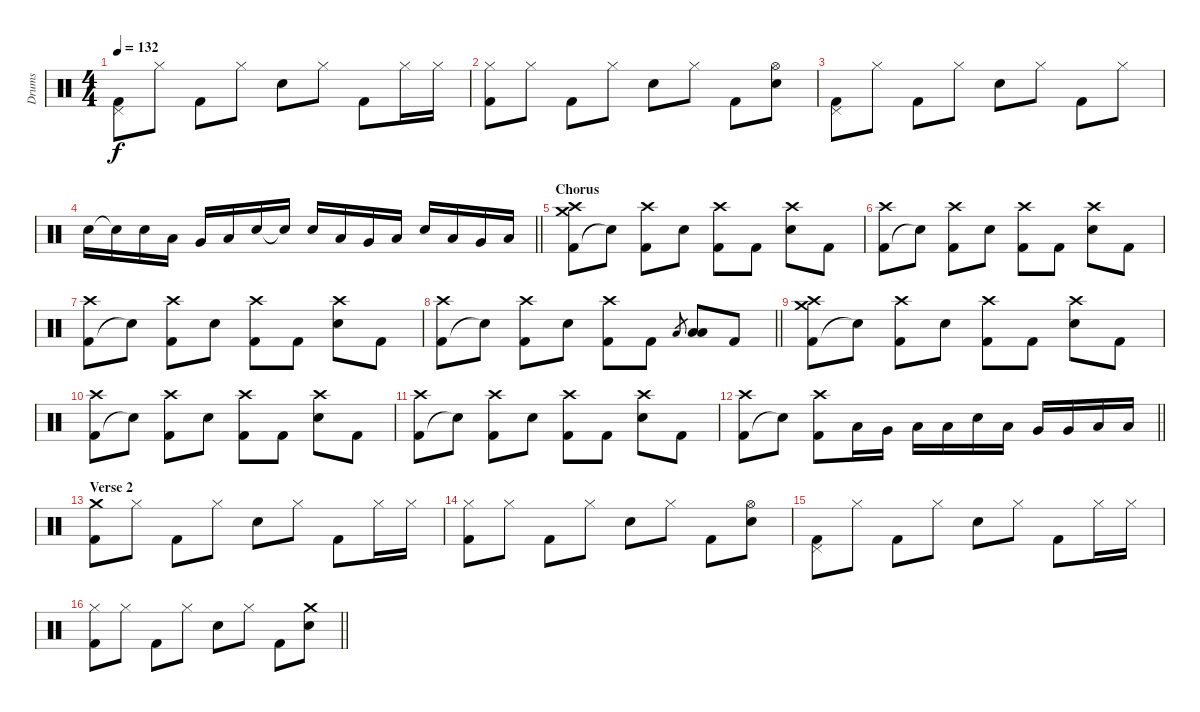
\track ("Drums" "Drums") {instrument percussion}
\staff {score}
\articulation defaults
\ts (4 4)
\tempo 132
\clef neutral
\ks c
("Kick (hit) 2" "Pedal Hi-Hat (hit)").8{dy f} "Hi-Hat (closed)".8 "Kick (hit) 2".8 "Hi-Hat (closed)".8 "Electric Snare (hit)".8 "Hi-Hat (closed)".8 "Kick (hit) 2".8 "Hi-Hat (closed)".16 "Hi-Hat (closed)".16 |
("Kick (hit) 2" "Hi-Hat (closed)").8 "Hi-Hat (closed)".8 "Kick (hit) 2".8 "Hi-Hat (closed)".8 "Electric Snare (hit)".8 "Hi-Hat (closed)".8 "Kick (hit) 2".8 ("Electric Snare (hit)" "Hi-Hat (open)").8 |
("Kick (hit) 2" "Pedal Hi-Hat (hit)").8 "Hi-Hat (closed)".8 "Kick (hit) 2".8 "Hi-Hat (closed)".8 "Electric Snare (hit)".8 "Hi-Hat (closed)".8 "Kick (hit) 2".8 "Hi-Hat (closed)".8 |
\barLineRight lightlight "Electric Snare (hit)".16 "Snare (hit)"{t}.16 "Electric Snare (hit)".16 "Low Tom (hit)".16 "Very Low Tom (hit)".16 "Low Floor Tom (hit)".16 "Electric Snare (hit)".16 "Snare (hit)"{t}.16 "Electric Snare (hit)".16 "Low Tom (hit)".16 "Very Low Tom (hit)".16 "Low Floor Tom (hit)".16 "Electric Snare (hit)".16 "Low Tom (hit)".16 "Very Low Tom (hit)".16 "Low Floor Tom (hit)".16
|
\section ("" "Chorus")
("Kick (hit) 2" "Crash medium (hit)" "Crash high (hit)").8 "Snare (hit)"{t}.8 ("Kick (hit) 2" "Crash high (hit)").8 "Electric Snare (hit)".8 ("Kick (hit) 2" "Crash high (hit)").8 "Kick (hit) 2".8 ("Electric Snare (hit)" "Crash high (hit)").8 "Kick (hit) 2".8 |
("Kick (hit) 2" "Crash high (hit)").8 "Snare (hit)"{t}.8 ("Kick (hit) 2" "Crash high (hit)").8 "Electric Snare (hit)".8 ("Kick (hit) 2" "Crash high (hit)").8 "Kick (hit) 2".8 ("Electric Snare (hit)" "Crash high (hit)").8 "Kick (hit) 2".8 |
("Kick (hit) 2" "Crash high (hit)").8 "Snare (hit)"{t}.8 ("Kick (hit) 2" "Crash high (hit)").8 "Electric Snare (hit)".8 ("Kick (hit) 2" "Crash high (hit)").8 "Kick (hit) 2".8 ("Electric Snare (hit)" "Crash high (hit)").8 "Kick (hit) 2".8 |
\barLineRight lightlight
("Kick (hit) 2" "Crash high (hit)").8 "Snare (hit)"{t}.8 ("Kick (hit) 2" "Crash high (hit)").8 "Electric Snare (hit)".8 ("Kick (hit) 2" "Crash high (hit)").8 "Kick (hit) 2".8 "Low Tom (hit)".8{gr} ("Low Tom (hit)" "Low Floor Tom (hit)").8 "Kick (hit) 2".8 |
("Kick (hit) 2" "Crash medium (hit)" "Crash high (hit)").8 "Snare (hit)"{t}.8 ("Kick (hit) 2" "Crash high (hit)").8 "Electric Snare (hit)".8 ("Kick (hit) 2" "Crash high (hit)").8 "Kick (hit) 2".8 ("Electric Snare (hit)" "Crash high (hit)").8 "Kick (hit) 2".8 |
("Kick (hit) 2" "Crash high (hit)").8 "Snare (hit)"{t}.8 ("Kick (hit) 2" "Crash high (hit)").8 "Electric Snare (hit)".8 ("Kick (hit) 2" "Crash high (hit)").8 "Kick (hit) 2".8 ("Electric Snare (hit)" "Crash high (hit)").8 "Kick (hit) 2".8 |
("Kick (hit) 2" "Crash high (hit)").8 "Snare (hit)"{t}.8 ("Kick (hit) 2" "Crash high (hit)").8 "Electric Snare (hit)".8 ("Kick (hit) 2" "Crash high (hit)").8 "Kick (hit) 2".8 ("Electric Snare (hit)" "Crash high (hit)").8 "Kick (hit) 2".8 |
\barLineRight lightlight
("Kick (hit) 2" "Crash high (hit)").8 "Snare (hit)"{t}.8 ("Kick (hit) 2" "Crash high (hit)").8 "Low Tom (hit)".16 "Very Low Tom (hit)".16 "Low Floor Tom (hit)".16 "Low Floor Tom (hit)".16 "Electric Snare (hit)".16 "Low Tom (hit)".16 "Very Low Tom (hit)".16 "Very Low Tom (hit)".16 "Low Floor Tom (hit)".16 "Low Floor Tom (hit)".16 |
\section ("" "Verse 2")
("Kick (hit) 2" "Crash medium (hit)").8 "Hi-Hat (closed)".8 "Kick (hit) 2".8 "Hi-Hat (closed)".8 "Electric Snare (hit)".8 "Hi-Hat (closed)".8 "Kick (hit) 2".8 "Hi-Hat (closed)".16 "Hi-Hat (closed)".16 |
("Kick (hit) 2" "Hi-Hat (closed)").8 "Hi-Hat (closed)".8 "Kick (hit) 2".8 "Hi-Hat (closed)".8 "Electric Snare (hit)".8 "Hi-Hat (closed)".8 "Kick (hit) 2".8 ("Electric Snare (hit)" "Hi-Hat (open)").8 |
("Kick (hit) 2" "Pedal Hi-Hat (hit)").8 "Hi-Hat (closed)".8 "Kick (hit) 2".8 "Hi-Hat (closed)".8 "Electric Snare (hit)".8 "Hi-Hat (closed)".8 "Kick (hit) 2".8 "Hi-Hat (closed)".16 "Hi-Hat (closed)".16 |
\barLineRight lightlight
("Kick (hit) 2" "Hi-Hat (closed)").8 "Hi-Hat (closed)".8 "Kick (hit) 2".8 "Hi-Hat (closed)".8 "Electric Snare (hit)".8 "Hi-Hat (closed)".8 "Kick (hit) 2".8 ("Electric Snare (hit)" "Crash medium (hit)").8
